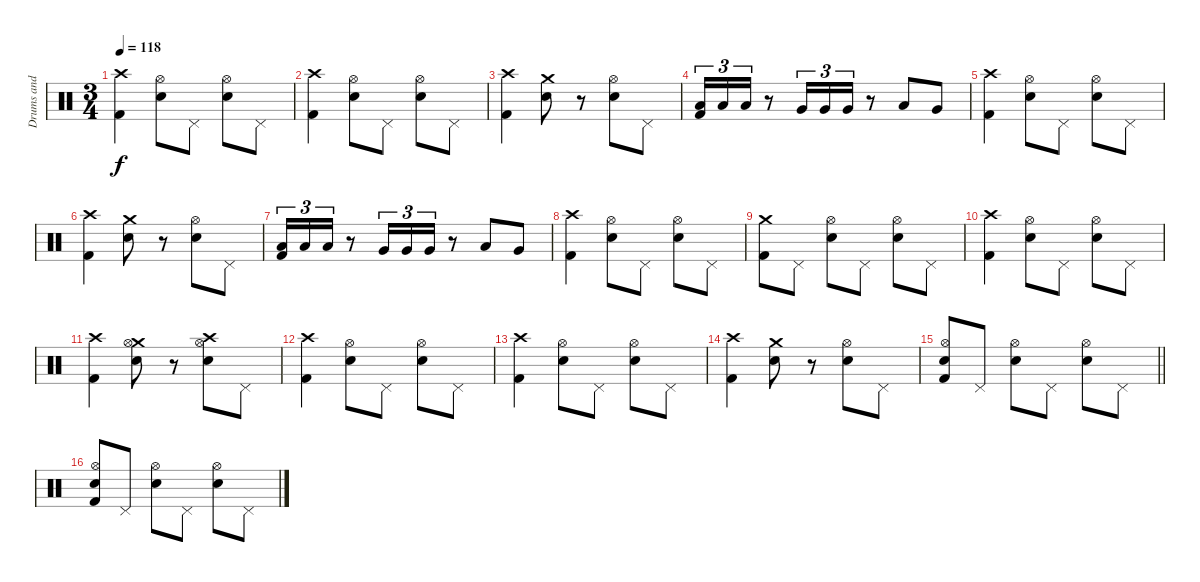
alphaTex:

\track ("Drums and percussion" "Drums and ") {instrument percussion}
\staff {score}
\articulation defaults
\ts (3 4)
\tempo 118
\clef neutral
\ks c
("Crash high (hit)" "Kick (hit) 2").4{dy f} ("Hi-Hat (open)" "Snare (hit) 2").8 "Pedal Hi-Hat (hit)".8 ("Hi-Hat (open)" "Snare (hit) 2").8 "Pedal Hi-Hat (hit)".8 |
("Crash high (hit)" "Kick (hit) 2").4 ("Hi-Hat (open)" "Snare (hit) 2").8 "Pedal Hi-Hat (hit)".8 ("Hi-Hat (open)" "Snare (hit) 2").8 "Pedal Hi-Hat (hit)".8 |
("Crash high (hit)" "Kick (hit) 2").4 ("Crash medium (hit)" "Snare (hit) 2").8 r.8 ("Hi-Hat (open)" "Snare (hit) 2").8 "Pedal Hi-Hat (hit)".8 |
("Low Tom (hit)" "Kick (hit) 2").16{tu (3 2)} "Low Tom (hit)".16{tu (3 2)} "Low Tom (hit)".16{tu (3 2)} r.8 "Very Low Tom (hit)".16{tu (3 2)} "Very Low Tom (hit)".16{tu (3 2)} "Very Low Tom (hit)".16{tu (3 2)} r.8 "Low Tom (hit)".8 "Very Low Tom (hit)".8 |
("Crash high (hit)" "Kick (hit) 2").4 ("Hi-Hat (open)" "Snare (hit) 2").8 "Pedal Hi-Hat (hit)".8 ("Hi-Hat (open)" "Snare (hit) 2").8 "Pedal Hi-Hat (hit)".8 |
("Crash high (hit)" "Kick (hit) 2").4 ("Crash medium (hit)" "Snare (hit) 2").8 r.8 ("Hi-Hat (open)" "Snare (hit) 2").8 "Pedal Hi-Hat (hit)".8 |
("Low Tom (hit)" "Kick (hit) 2").16{tu (3 2)} "Low Tom (hit)".16{tu (3 2)} "Low Tom (hit)".16{tu (3 2)} r.8 "Very Low Tom (hit)".16{tu (3 2)} "Very Low Tom (hit)".16{tu (3 2)} "Very Low Tom (hit)".16{tu (3 2)} r.8 "Low Tom (hit)".8 "Very Low Tom (hit)".8 |
("Crash high (hit)" "Kick (hit) 2").4 ("Hi-Hat (open)" "Snare (hit) 2").8 "Pedal Hi-Hat (hit)".8 ("Hi-Hat (open)" "Snare (hit) 2").8 "Pedal Hi-Hat (hit)".8 |
("Crash medium (hit)" "Kick (hit) 2").8 "Pedal Hi-Hat (hit)".8 ("Hi-Hat (open)" "Snare (hit) 2").8 "Pedal Hi-Hat (hit)".8 ("Hi-Hat (open)" "Snare (hit) 2").8 "Pedal Hi-Hat (hit)".8 |
("Crash high (hit)" "Kick (hit) 2").4 ("Hi-Hat (open)" "Snare (hit) 2").8 "Pedal Hi-Hat (hit)".8 ("Hi-Hat (open)" "Snare (hit) 2").8 "Pedal Hi-Hat (hit)".8 |
("Crash high (hit)" "Kick (hit) 2").4 ("Crash medium (hit)" "Hi-Hat (open)" "Snare (hit) 2").8 r.8 ("Crash high (hit)" "Hi-Hat (open)" "Snare (hit) 2").8 "Pedal Hi-Hat (hit)".8 |
("Crash high (hit)" "Kick (hit) 2").4 ("Hi-Hat (open)" "Snare (hit) 2").8 "Pedal Hi-Hat (hit)".8 ("Hi-Hat (open)" "Snare (hit) 2").8 "Pedal Hi-Hat (hit)".8 |
("Crash high (hit)" "Kick (hit) 2").4 ("Hi-Hat (open)" "Snare (hit) 2").8 "Pedal Hi-Hat (hit)".8 ("Hi-Hat (open)" "Snare (hit) 2").8 "Pedal Hi-Hat (hit)".8 |
("Crash high (hit)" "Kick (hit) 2").4 ("Crash medium (hit)" "Snare (hit) 2").8 r.8 ("Hi-Hat (open)" "Snare (hit) 2").8 "Pedal Hi-Hat (hit)".8 |
\barLineRight lightlight
("Hi-Hat (open)" "Snare (hit) 2" "Kick (hit) 2").8 "Pedal Hi-Hat (hit)".8 ("Hi-Hat (open)" "Snare (hit) 2").8 "Pedal Hi-Hat (hit)".8 ("Hi-Hat (open)" "Snare (hit) 2").8 "Pedal Hi-Hat (hit)".8 |
("Hi-Hat (open)" "Snare (hit) 2" "Kick (hit) 2").8 "Pedal Hi-Hat (hit)".8 ("Hi-Hat (open)" "Snare (hit) 2").8 "Pedal Hi-Hat (hit)".8 ("Hi-Hat (open)" "Snare (hit) 2").8 "Pedal Hi-Hat (hit)".8
